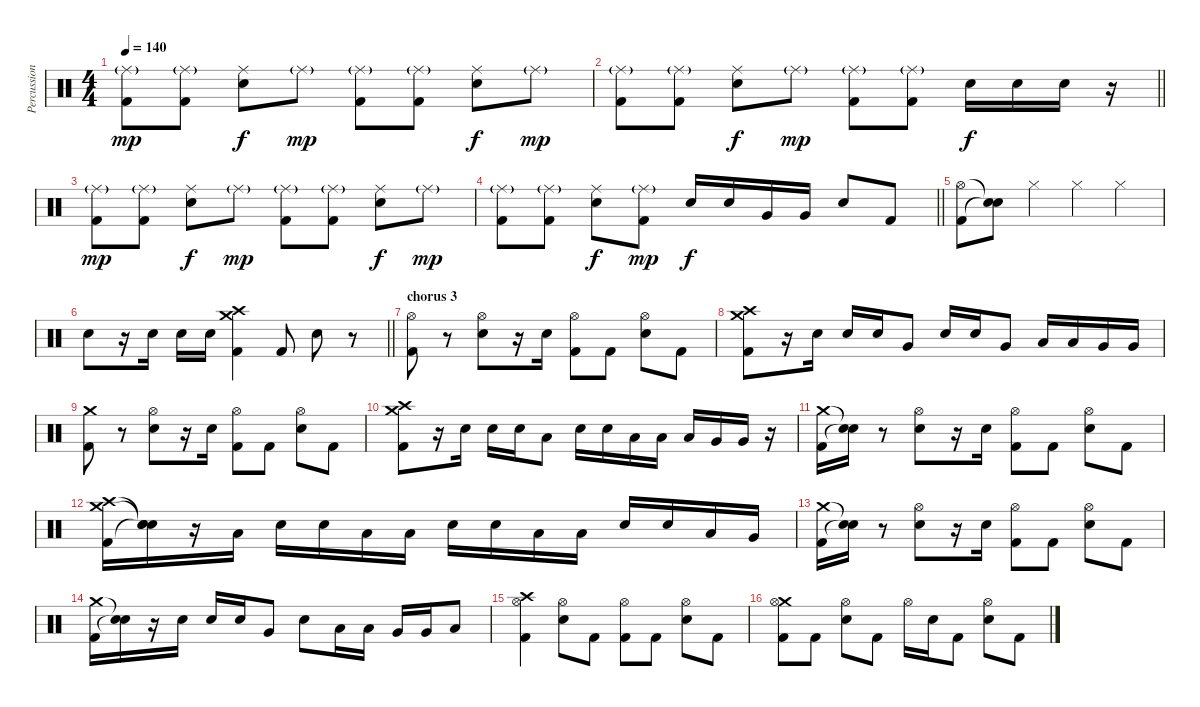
\track ("Percussion" "Percussion") {instrument percussion}
\staff {score}
\articulation defaults
\ts (4 4)
\tempo 140
\clef neutral
\ks c
("Kick (hit) 2" "Ride (middle)"{g}).8{dy mp} ("Kick (hit) 2" "Ride (middle)"{g}).8 ("Electric Snare (hit)" "Ride (middle)").8{dy f} "Ride (middle)"{g}.8{dy mp} ("Kick (hit) 2" "Ride (middle)"{g}).8 ("Kick (hit) 2" "Ride (middle)"{g}).8 ("Electric Snare (hit)" "Ride (middle)").8{dy f} "Ride (middle)"{g}.8{dy mp} |
\barLineRight lightlight
("Kick (hit) 2" "Ride (middle)"{g}).8 ("Kick (hit) 2" "Ride (middle)"{g}).8 ("Electric Snare (hit)" "Ride (middle)").8{dy f} "Ride (middle)"{g}.8{dy mp} ("Kick (hit) 2" "Ride (middle)"{g}).8 ("Kick (hit) 2" "Ride (middle)"{g}).8 "Electric Snare (hit)".16{dy f} "Electric Snare (hit)".16 "Electric Snare (hit)".16 r.16 |
("Kick (hit) 2" "Ride (middle)"{g}).8{dy mp} ("Kick (hit) 2" "Ride (middle)"{g}).8 ("Electric Snare (hit)" "Ride (middle)").8{dy f} "Ride (middle)"{g}.8{dy mp} ("Kick (hit) 2" "Ride (middle)"{g}).8 ("Kick (hit) 2" "Ride (middle)"{g}).8 ("Electric Snare (hit)" "Ride (middle)").8{dy f} "Ride (middle)"{g}.8{dy mp} |
\barLineRight lightlight
("Kick (hit) 2" "Ride (middle)"{g}).8 ("Kick (hit) 2" "Ride (middle)"{g}).8 ("Electric Snare (hit)" "Ride (middle)").8{dy f} ("Kick (hit) 2" "Ride (middle)"{g}).8{dy mp} "Electric Snare (hit)".16{dy f} "Electric Snare (hit)".16 "Very Low Tom (hit)".16 "Very Low Tom (hit)".16 "Electric Snare (hit)".8 "Kick (hit) 2".8 |
("Kick (hit) 2" "Hi-Hat (open)").8 ("Snare (hit)"{t} "Snare (hit)"{t}).8 "Hi-Hat (closed)".4 "Hi-Hat (closed)".4 "Hi-Hat (closed)".4 |
\barLineRight lightlight "Electric Snare (hit)".8
r.16 "Electric Snare (hit)".16 "Electric Snare (hit)".16 "Electric Snare (hit)".16 ("Crash medium (hit)" "Crash high (hit)" "Kick (hit) 2").4 "Kick (hit) 2".8 "Electric Snare (hit)".8 r.8 |
\section ("" "chorus 3")
("Kick (hit) 2" "Hi-Hat (open)").8 r.8 ("Electric Snare (hit)" "Hi-Hat (open)").8 r.16 "Electric Snare (hit)".16 ("Kick (hit) 2" "Hi-Hat (open)").8 "Kick (hit) 2".8 ("Electric Snare (hit)" "Hi-Hat (open)").8 "Kick (hit) 2".8 |
("Crash medium (hit)" "Crash high (hit)" "Kick (hit) 2").8 r.16 "Electric Snare (hit)".16 "Electric Snare (hit)".16 "Electric Snare (hit)".16 "Very Low Tom (hit)".8 "Electric Snare (hit)".16 "Electric Snare (hit)".16 "Very Low Tom (hit)".8 "Low Tom (hit)".16 "Low Tom (hit)".16 "Very Low Tom (hit)".16 "Very Low Tom (hit)".16 |
("Crash medium (hit)" "Kick (hit) 2").8 r.8 ("Electric Snare (hit)" "Hi-Hat (open)").8 r.16 "Electric Snare (hit)".16 ("Kick (hit) 2" "Hi-Hat (open)").8 "Kick (hit) 2".8 ("Electric Snare (hit)" "Hi-Hat (open)").8 "Kick (hit) 2".8 |
("Crash medium (hit)" "Crash high (hit)" "Kick (hit) 2").8 r.16 "Electric Snare (hit)".16 "Electric Snare (hit)".16 "Electric Snare (hit)".16 "Low Tom (hit)".8 "Electric Snare (hit)".16 "Electric Snare (hit)".16 "Low Tom (hit)".16 "Low Tom (hit)".16 "Low Tom (hit)".16 "Very Low Tom (hit)".16 "Very Low Tom (hit)".16 r.16 |
("Crash medium (hit)" "Kick (hit) 2").16 ("Snare (hit)"{t} "Snare (hit)"{t}).16 r.8 ("Electric Snare (hit)" "Hi-Hat (open)").8 r.16 "Electric Snare (hit)".16 ("Kick (hit) 2" "Hi-Hat (open)").8 "Kick (hit) 2".8 ("Electric Snare (hit)" "Hi-Hat (open)").8 "Kick (hit) 2".8 |
("Crash medium (hit)" "Crash high (hit)" "Kick (hit) 2").16 ("Snare (hit)"{t} "Snare (hit)"{t} "Snare (hit)"{t}).16 r.16 "Low Floor Tom (hit)".16 "Electric Snare (hit)".16 "Electric Snare (hit)".16 "Low Tom (hit)".16 "Low Floor Tom (hit)".16 "Electric Snare (hit)".16 "Electric Snare (hit)".16 "Low Tom (hit)".16 "Low Floor Tom (hit)".16 "Electric Snare (hit)".16 "Electric Snare (hit)".16 "Low Tom (hit)".16 "Very Low Tom (hit)".16 |
("Crash medium (hit)" "Kick (hit) 2").16 ("Snare (hit)"{t} "Snare (hit)"{t}).16 r.8 ("Electric Snare (hit)" "Hi-Hat (open)").8 r.16 "Electric Snare (hit)".16 ("Kick (hit) 2" "Hi-Hat (open)").8 "Kick (hit) 2".8 ("Electric Snare (hit)" "Hi-Hat (open)").8 "Kick (hit) 2".8 |
("Crash medium (hit)" "Kick (hit) 2").16 ("Snare (hit)"{t} "Snare (hit)"{t}).16 r.16 "Electric Snare (hit)".16 "Electric Snare (hit)".16 "Electric Snare (hit)".16 "Very Low Tom (hit)".8 "Electric Snare (hit)".8 "Low Tom (hit)".16 "Low Tom (hit)".16 "Very Low Tom (hit)".16 "Very Low Tom (hit)".16 "Low Floor Tom (hit)".8 |
("Crash high (hit)" "Kick (hit) 2" "Hi-Hat (open)").4 ("Electric Snare (hit)" "Hi-Hat (open)").8 "Kick (hit) 2".8 ("Kick (hit) 2" "Hi-Hat (open)").8 "Kick (hit) 2".8 ("Electric Snare (hit)" "Hi-Hat (open)").8 "Kick (hit) 2".8 |
("Crash medium (hit)" "Kick (hit) 2" "Hi-Hat (open)").8 "Kick (hit) 2".8 ("Electric Snare (hit)" "Hi-Hat (open)").8 "Kick (hit) 2".8 "Hi-Hat (open)".16 "Electric Snare (hit)".16 "Kick (hit) 2".8 ("Electric Snare (hit)" "Hi-Hat (open)").8 "Kick (hit) 2".8
